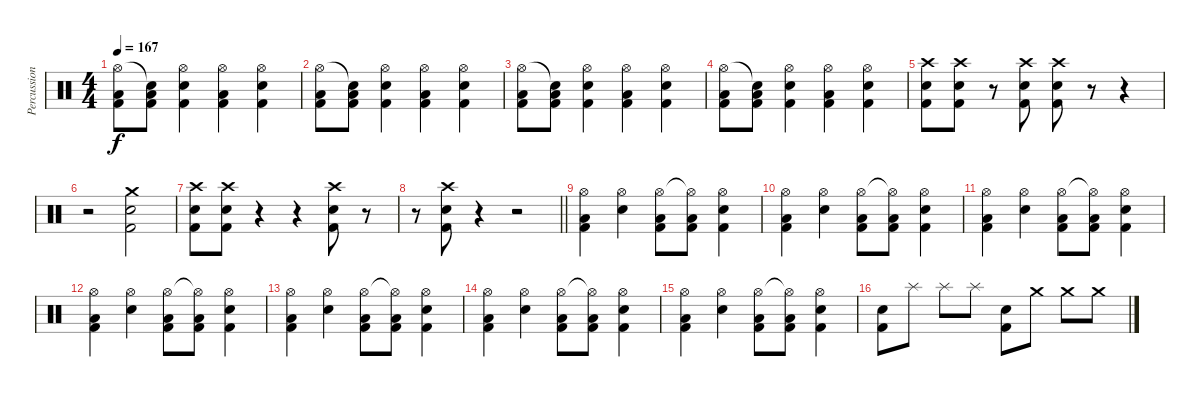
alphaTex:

\track ("Percussions" "Percussion") {instrument percussion}
\staff {score}
\articulation defaults
\ts (4 4)
\tempo 167
\clef neutral
\ks c
("Hi-Hat (open)" "Low Floor Tom (hit)" "Kick (hit) 2").8{dy f} ("Snare (hit)"{t} "Low Floor Tom (hit)" "Kick (hit) 2").8 ("Hi-Hat (open)" "Electric Snare (hit)" "Kick (hit) 2").4 ("Hi-Hat (open)" "Low Floor Tom (hit)" "Kick (hit) 2").4 ("Hi-Hat (open)" "Electric Snare (hit)" "Kick (hit) 2").4 |
("Hi-Hat (open)" "Low Floor Tom (hit)" "Kick (hit) 2").8 ("Snare (hit)"{t} "Low Floor Tom (hit)" "Kick (hit) 2").8 ("Hi-Hat (open)" "Electric Snare (hit)" "Kick (hit) 2").4 ("Hi-Hat (open)" "Low Floor Tom (hit)" "Kick (hit) 2").4 ("Hi-Hat (open)" "Electric Snare (hit)" "Kick (hit) 2").4 |
("Hi-Hat (open)" "Low Floor Tom (hit)" "Kick (hit) 2").8 ("Snare (hit)"{t} "Low Floor Tom (hit)" "Kick (hit) 2").8 ("Hi-Hat (open)" "Electric Snare (hit)" "Kick (hit) 2").4 ("Hi-Hat (open)" "Low Floor Tom (hit)" "Kick (hit) 2").4 ("Hi-Hat (open)" "Electric Snare (hit)" "Kick (hit) 2").4 |
("Hi-Hat (open)" "Low Floor Tom (hit)" "Kick (hit) 2").8 ("Snare (hit)"{t} "Low Floor Tom (hit)" "Kick (hit) 2").8 ("Hi-Hat (open)" "Electric Snare (hit)" "Kick (hit) 2").4 ("Hi-Hat (open)" "Low Floor Tom (hit)" "Kick (hit) 2").4 ("Hi-Hat (open)" "Electric Snare (hit)" "Kick (hit) 2").4 |
("Crash high (hit)" "Electric Snare (hit)" "Kick (hit) 2").8 ("Crash high (hit)" "Electric Snare (hit)" "Kick (hit) 2").8 r.8 ("Crash high (hit)" "Electric Snare (hit)" "Kick (hit) 2").8 ("Crash high (hit)" "Electric Snare (hit)" "Kick (hit) 2").8 r.8 r.4 |
r.2 ("Crash medium (hit)" "Electric Snare (hit)" "Kick (hit) 2").2 |
("Crash high (hit)" "Electric Snare (hit)" "Kick (hit) 2").8 ("Crash high (hit)" "Electric Snare (hit)" "Kick (hit) 2").8 r.4 r.4 ("Crash high (hit)" "Electric Snare (hit)" "Kick (hit) 2").8 r.8 |
\barLineRight lightlight
r.8 ("Crash high (hit)" "Electric Snare (hit)" "Kick (hit) 2").8 r.4 r.2 |
("Hi-Hat (open)" "Low Floor Tom (hit)" "Kick (hit) 2").4 ("Hi-Hat (open)" "Electric Snare (hit)").4 ("Hi-Hat (open)" "Low Floor Tom (hit)" "Kick (hit) 2").8 ("Hi-Hat (open)"{t} "Low Floor Tom (hit)" "Kick (hit) 2").8 ("Hi-Hat (open)" "Electric Snare (hit)" "Kick (hit) 2").4 |
("Hi-Hat (open)" "Low Floor Tom (hit)" "Kick (hit) 2").4 ("Hi-Hat (open)" "Electric Snare (hit)").4 ("Hi-Hat (open)" "Low Floor Tom (hit)" "Kick (hit) 2").8 ("Hi-Hat (open)"{t} "Low Floor Tom (hit)" "Kick (hit) 2").8 ("Hi-Hat (open)" "Electric Snare (hit)" "Kick (hit) 2").4 |
("Hi-Hat (open)" "Low Floor Tom (hit)" "Kick (hit) 2").4 ("Hi-Hat (open)" "Electric Snare (hit)").4 ("Hi-Hat (open)" "Low Floor Tom (hit)" "Kick (hit) 2").8 ("Hi-Hat (open)"{t} "Low Floor Tom (hit)" "Kick (hit) 2").8 ("Hi-Hat (open)" "Electric Snare (hit)" "Kick (hit) 2").4 |
("Hi-Hat (open)" "Low Floor Tom (hit)" "Kick (hit) 2").4 ("Hi-Hat (open)" "Electric Snare (hit)").4 ("Hi-Hat (open)" "Low Floor Tom (hit)" "Kick (hit) 2").8 ("Hi-Hat (open)"{t} "Low Floor Tom (hit)" "Kick (hit) 2").8 ("Hi-Hat (open)" "Electric Snare (hit)" "Kick (hit) 2").4 |
("Hi-Hat (open)" "Low Floor Tom (hit)" "Kick (hit) 2").4 ("Hi-Hat (open)" "Electric Snare (hit)").4 ("Hi-Hat (open)" "Low Floor Tom (hit)" "Kick (hit) 2").8 ("Hi-Hat (open)"{t} "Low Floor Tom (hit)" "Kick (hit) 2").8 ("Hi-Hat (open)" "Electric Snare (hit)" "Kick (hit) 2").4 |
("Hi-Hat (open)" "Low Floor Tom (hit)" "Kick (hit) 2").4 ("Hi-Hat (open)" "Electric Snare (hit)").4 ("Hi-Hat (open)" "Low Floor Tom (hit)" "Kick (hit) 2").8 ("Hi-Hat (open)"{t} "Low Floor Tom (hit)" "Kick (hit) 2").8 ("Hi-Hat (open)" "Electric Snare (hit)" "Kick (hit) 2").4 |
("Hi-Hat (open)" "Low Floor Tom (hit)" "Kick (hit) 2").4 ("Hi-Hat (open)" "Electric Snare (hit)").4 ("Hi-Hat (open)" "Low Floor Tom (hit)" "Kick (hit) 2").8 ("Hi-Hat (open)"{t} "Low Floor Tom (hit)" "Kick (hit) 2").8 ("Hi-Hat (open)" "Electric Snare (hit)" "Kick (hit) 2").4 |
("Electric Snare (hit)" "Kick (hit) 2").8 "Splash (hit)".8 "Splash (hit)".8 "Splash (hit)".8 ("Electric Snare (hit)" "Kick (hit) 2").8 "Crash medium (hit)".8 "Crash medium (hit)".8 "Crash medium (hit)".8
